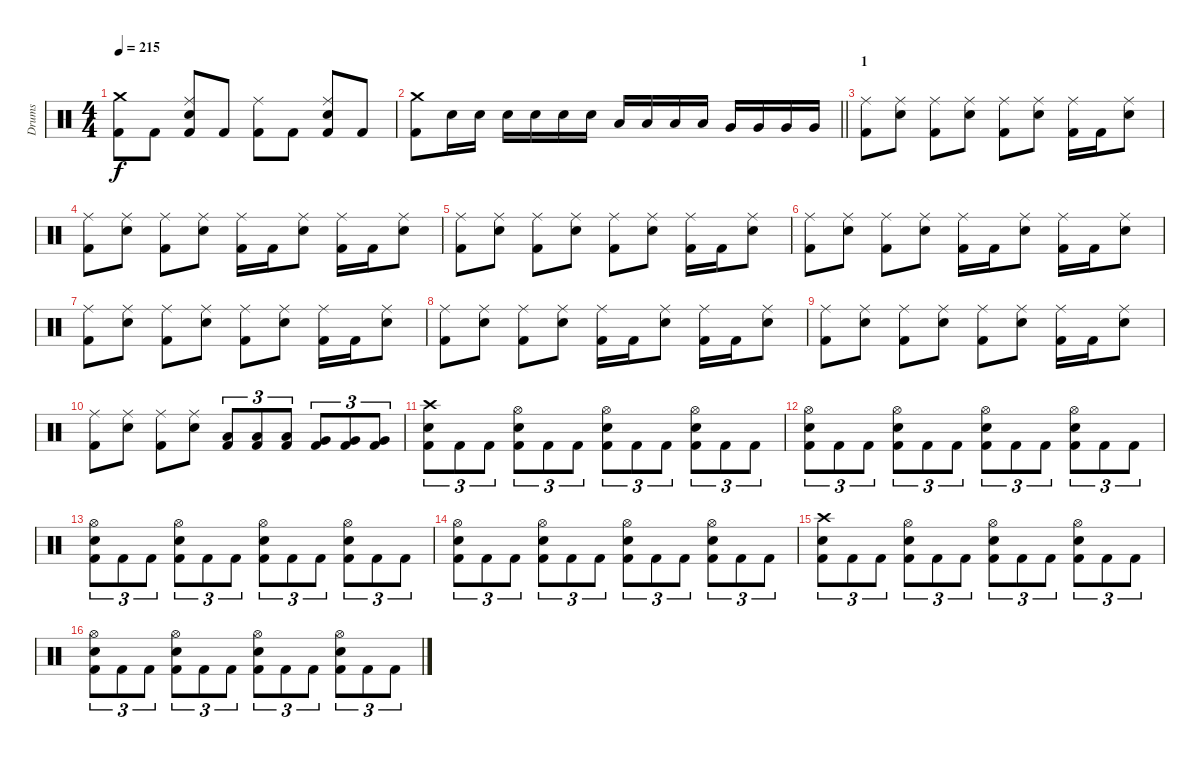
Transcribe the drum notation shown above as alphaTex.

\track ("Drums" "Drums") {instrument percussion}
\staff {score}
\articulation defaults
\ts (4 4)
\tempo 215
\clef neutral
\ks c
("Crash medium (hit)" "Kick (hit) 2").8{dy f} "Kick (hit) 2".8 ("Ride (middle)" "Electric Snare (hit)" "Kick (hit) 2").8 "Kick (hit) 2".8 ("Ride (middle)" "Kick (hit) 2").8 "Kick (hit) 2".8 ("Ride (middle)" "Electric Snare (hit)" "Kick (hit) 2").8 "Kick (hit) 2".8 |
\barLineRight lightlight
("Crash medium (hit)" "Kick (hit) 2").8 "Electric Snare (hit)".16 "Electric Snare (hit)".16 "Electric Snare (hit)".16 "Electric Snare (hit)".16 "Electric Snare (hit)".16 "Electric Snare (hit)".16 "Low Tom (hit)".16 "Low Tom (hit)".16 "Low Tom (hit)".16 "Low Tom (hit)".16 "Very Low Tom (hit)".16 "Very Low Tom (hit)".16 "Very Low Tom (hit)".16 "Very Low Tom (hit)".16 |
\section ("" "1")
("Ride (middle)" "Kick (hit) 2").8 ("Ride (middle)" "Electric Snare (hit)").8 ("Ride (middle)" "Kick (hit) 2").8 ("Ride (middle)" "Electric Snare (hit)").8 ("Ride (middle)" "Kick (hit) 2").8 ("Ride (middle)" "Electric Snare (hit)").8 ("Ride (middle)" "Kick (hit) 2").16 "Kick (hit) 2".16 ("Ride (middle)" "Electric Snare (hit)").8 |
("Ride (middle)" "Kick (hit) 2").8 ("Ride (middle)" "Electric Snare (hit)").8 ("Ride (middle)" "Kick (hit) 2").8 ("Ride (middle)" "Electric Snare (hit)").8 ("Ride (middle)" "Kick (hit) 2").16 "Kick (hit) 2".16 ("Ride (middle)" "Electric Snare (hit)").8 ("Ride (middle)" "Kick (hit) 2").16 "Kick (hit) 2".16 ("Ride (middle)" "Electric Snare (hit)").8 |
("Ride (middle)" "Kick (hit) 2").8 ("Ride (middle)" "Electric Snare (hit)").8 ("Ride (middle)" "Kick (hit) 2").8 ("Ride (middle)" "Electric Snare (hit)").8 ("Ride (middle)" "Kick (hit) 2").8 ("Ride (middle)" "Electric Snare (hit)").8 ("Ride (middle)" "Kick (hit) 2").16 "Kick (hit) 2".16 ("Ride (middle)" "Electric Snare (hit)").8 |
("Ride (middle)" "Kick (hit) 2").8 ("Ride (middle)" "Electric Snare (hit)").8 ("Ride (middle)" "Kick (hit) 2").8 ("Ride (middle)" "Electric Snare (hit)").8 ("Ride (middle)" "Kick (hit) 2").16 "Kick (hit) 2".16 ("Ride (middle)" "Electric Snare (hit)").8 ("Ride (middle)" "Kick (hit) 2").16 "Kick (hit) 2".16 ("Ride (middle)" "Electric Snare (hit)").8 |
("Ride (middle)" "Kick (hit) 2").8 ("Ride (middle)" "Electric Snare (hit)").8 ("Ride (middle)" "Kick (hit) 2").8 ("Ride (middle)" "Electric Snare (hit)").8 ("Ride (middle)" "Kick (hit) 2").8 ("Ride (middle)" "Electric Snare (hit)").8 ("Ride (middle)" "Kick (hit) 2").16 "Kick (hit) 2".16 ("Ride (middle)" "Electric Snare (hit)").8 |
("Ride (middle)" "Kick (hit) 2").8 ("Ride (middle)" "Electric Snare (hit)").8 ("Ride (middle)" "Kick (hit) 2").8 ("Ride (middle)" "Electric Snare (hit)").8 ("Ride (middle)" "Kick (hit) 2").16 "Kick (hit) 2".16 ("Ride (middle)" "Electric Snare (hit)").8 ("Ride (middle)" "Kick (hit) 2").16 "Kick (hit) 2".16 ("Ride (middle)" "Electric Snare (hit)").8 |
("Ride (middle)" "Kick (hit) 2").8 ("Ride (middle)" "Electric Snare (hit)").8 ("Ride (middle)" "Kick (hit) 2").8 ("Ride (middle)" "Electric Snare (hit)").8 ("Ride (middle)" "Kick (hit) 2").8 ("Ride (middle)" "Electric Snare (hit)").8 ("Ride (middle)" "Kick (hit) 2").16 "Kick (hit) 2".16 ("Ride (middle)" "Electric Snare (hit)").8 |
("Ride (middle)" "Kick (hit) 2").8 ("Ride (middle)" "Electric Snare (hit)").8 ("Ride (middle)" "Kick (hit) 2").8 ("Ride (middle)" "Electric Snare (hit)").8 ("Low Tom (hit)" "Kick (hit) 2").8{tu (3 2)} ("Low Tom (hit)" "Kick (hit) 2").8{tu (3 2)} ("Low Tom (hit)" "Kick (hit) 2").8{tu (3 2)} ("Very Low Tom (hit)" "Kick (hit) 2").8{tu (3 2)} ("Very Low Tom (hit)" "Kick (hit) 2").8{tu (3 2)} ("Very Low Tom (hit)" "Kick (hit) 2").8{tu (3 2)} |
("Crash high (hit)" "Electric Snare (hit)" "Kick (hit) 2").8{tu (3 2)} "Kick (hit) 2".8{tu (3 2)} "Kick (hit) 2".8{tu (3 2)} ("Hi-Hat (open)" "Electric Snare (hit)" "Kick (hit) 2").8{tu (3 2)} "Kick (hit) 2".8{tu (3 2)} "Kick (hit) 2".8{tu (3 2)} ("Hi-Hat (open)" "Electric Snare (hit)" "Kick (hit) 2").8{tu (3 2)} "Kick (hit) 2".8{tu (3 2)} "Kick (hit) 2".8{tu (3 2)} ("Hi-Hat (open)" "Electric Snare (hit)" "Kick (hit) 2").8{tu (3 2)} "Kick (hit) 2".8{tu (3 2)} "Kick (hit) 2".8{tu (3 2)} |
("Hi-Hat (open)" "Electric Snare (hit)" "Kick (hit) 2").8{tu (3 2)} "Kick (hit) 2".8{tu (3 2)} "Kick (hit) 2".8{tu (3 2)} ("Hi-Hat (open)" "Electric Snare (hit)" "Kick (hit) 2").8{tu (3 2)} "Kick (hit) 2".8{tu (3 2)} "Kick (hit) 2".8{tu (3 2)} ("Hi-Hat (open)" "Electric Snare (hit)" "Kick (hit) 2").8{tu (3 2)} "Kick (hit) 2".8{tu (3 2)} "Kick (hit) 2".8{tu (3 2)} ("Hi-Hat (open)" "Electric Snare (hit)" "Kick (hit) 2").8{tu (3 2)} "Kick (hit) 2".8{tu (3 2)} "Kick (hit) 2".8{tu (3 2)} |
("Hi-Hat (open)" "Electric Snare (hit)" "Kick (hit) 2").8{tu (3 2)} "Kick (hit) 2".8{tu (3 2)} "Kick (hit) 2".8{tu (3 2)} ("Hi-Hat (open)" "Electric Snare (hit)" "Kick (hit) 2").8{tu (3 2)} "Kick (hit) 2".8{tu (3 2)} "Kick (hit) 2".8{tu (3 2)} ("Hi-Hat (open)" "Electric Snare (hit)" "Kick (hit) 2").8{tu (3 2)} "Kick (hit) 2".8{tu (3 2)} "Kick (hit) 2".8{tu (3 2)} ("Hi-Hat (open)" "Electric Snare (hit)" "Kick (hit) 2").8{tu (3 2)} "Kick (hit) 2".8{tu (3 2)} "Kick (hit) 2".8{tu (3 2)} |
("Hi-Hat (open)" "Electric Snare (hit)" "Kick (hit) 2").8{tu (3 2)} "Kick (hit) 2".8{tu (3 2)} "Kick (hit) 2".8{tu (3 2)} ("Hi-Hat (open)" "Electric Snare (hit)" "Kick (hit) 2").8{tu (3 2)} "Kick (hit) 2".8{tu (3 2)} "Kick (hit) 2".8{tu (3 2)} ("Hi-Hat (open)" "Electric Snare (hit)" "Kick (hit) 2").8{tu (3 2)} "Kick (hit) 2".8{tu (3 2)} "Kick (hit) 2".8{tu (3 2)} ("Hi-Hat (open)" "Electric Snare (hit)" "Kick (hit) 2").8{tu (3 2)} "Kick (hit) 2".8{tu (3 2)} "Kick (hit) 2".8{tu (3 2)} |
("Crash high (hit)" "Electric Snare (hit)" "Kick (hit) 2").8{tu (3 2)} "Kick (hit) 2".8{tu (3 2)} "Kick (hit) 2".8{tu (3 2)} ("Hi-Hat (open)" "Electric Snare (hit)" "Kick (hit) 2").8{tu (3 2)} "Kick (hit) 2".8{tu (3 2)} "Kick (hit) 2".8{tu (3 2)} ("Hi-Hat (open)" "Electric Snare (hit)" "Kick (hit) 2").8{tu (3 2)} "Kick (hit) 2".8{tu (3 2)} "Kick (hit) 2".8{tu (3 2)} ("Hi-Hat (open)" "Electric Snare (hit)" "Kick (hit) 2").8{tu (3 2)} "Kick (hit) 2".8{tu (3 2)} "Kick (hit) 2".8{tu (3 2)} |
("Hi-Hat (open)" "Electric Snare (hit)" "Kick (hit) 2").8{tu (3 2)} "Kick (hit) 2".8{tu (3 2)} "Kick (hit) 2".8{tu (3 2)} ("Hi-Hat (open)" "Electric Snare (hit)" "Kick (hit) 2").8{tu (3 2)} "Kick (hit) 2".8{tu (3 2)} "Kick (hit) 2".8{tu (3 2)} ("Hi-Hat (open)" "Electric Snare (hit)" "Kick (hit) 2").8{tu (3 2)} "Kick (hit) 2".8{tu (3 2)} "Kick (hit) 2".8{tu (3 2)} ("Hi-Hat (open)" "Electric Snare (hit)" "Kick (hit) 2").8{tu (3 2)} "Kick (hit) 2".8{tu (3 2)} "Kick (hit) 2".8{tu (3 2)}
